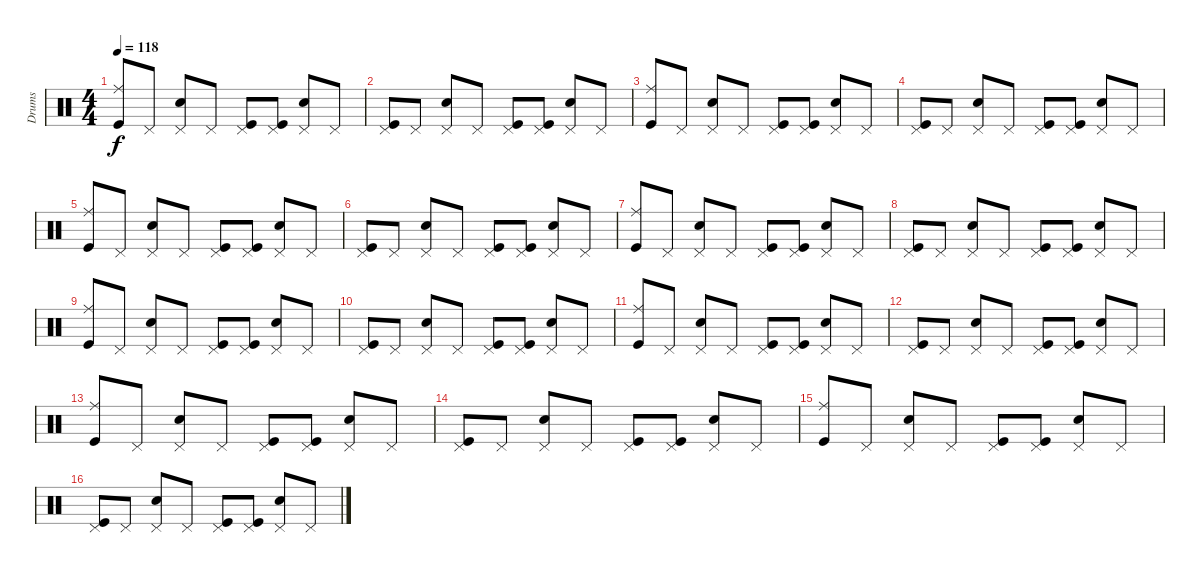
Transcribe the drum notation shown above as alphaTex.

\track ("Drums" "Drums") {instrument percussion}
\staff {score}
\articulation defaults
\ts (4 4)
\tempo 118
\clef neutral
\ks c
("Kick (hit)" "Ride (middle)").8{dy f} "Pedal Hi-Hat (hit)".8 ("Snare (hit) 2" "Pedal Hi-Hat (hit)").8 "Pedal Hi-Hat (hit)".8 ("Kick (hit)" "Pedal Hi-Hat (hit)").8 ("Kick (hit)" "Pedal Hi-Hat (hit)").8 ("Snare (hit) 2" "Pedal Hi-Hat (hit)").8 "Pedal Hi-Hat (hit)".8 |
("Kick (hit)" "Pedal Hi-Hat (hit)").8 "Pedal Hi-Hat (hit)".8 ("Snare (hit) 2" "Pedal Hi-Hat (hit)").8 "Pedal Hi-Hat (hit)".8 ("Kick (hit)" "Pedal Hi-Hat (hit)").8 ("Kick (hit)" "Pedal Hi-Hat (hit)").8 ("Snare (hit) 2" "Pedal Hi-Hat (hit)").8 "Pedal Hi-Hat (hit)".8 |
("Kick (hit)" "Ride (middle)").8 "Pedal Hi-Hat (hit)".8 ("Snare (hit) 2" "Pedal Hi-Hat (hit)").8 "Pedal Hi-Hat (hit)".8 ("Kick (hit)" "Pedal Hi-Hat (hit)").8 ("Kick (hit)" "Pedal Hi-Hat (hit)").8 ("Snare (hit) 2" "Pedal Hi-Hat (hit)").8 "Pedal Hi-Hat (hit)".8 |
("Kick (hit)" "Pedal Hi-Hat (hit)").8 "Pedal Hi-Hat (hit)".8 ("Snare (hit) 2" "Pedal Hi-Hat (hit)").8 "Pedal Hi-Hat (hit)".8 ("Kick (hit)" "Pedal Hi-Hat (hit)").8 ("Kick (hit)" "Pedal Hi-Hat (hit)").8 ("Snare (hit) 2" "Pedal Hi-Hat (hit)").8 "Pedal Hi-Hat (hit)".8 |
("Kick (hit)" "Ride (middle)").8 "Pedal Hi-Hat (hit)".8 ("Snare (hit) 2" "Pedal Hi-Hat (hit)").8 "Pedal Hi-Hat (hit)".8 ("Kick (hit)" "Pedal Hi-Hat (hit)").8 ("Kick (hit)" "Pedal Hi-Hat (hit)").8 ("Snare (hit) 2" "Pedal Hi-Hat (hit)").8 "Pedal Hi-Hat (hit)".8 |
("Kick (hit)" "Pedal Hi-Hat (hit)").8 "Pedal Hi-Hat (hit)".8 ("Snare (hit) 2" "Pedal Hi-Hat (hit)").8 "Pedal Hi-Hat (hit)".8 ("Kick (hit)" "Pedal Hi-Hat (hit)").8 ("Kick (hit)" "Pedal Hi-Hat (hit)").8 ("Snare (hit) 2" "Pedal Hi-Hat (hit)").8 "Pedal Hi-Hat (hit)".8 |
\section ("" "")
("Kick (hit)" "Ride (middle)").8 "Pedal Hi-Hat (hit)".8 ("Snare (hit) 2" "Pedal Hi-Hat (hit)").8 "Pedal Hi-Hat (hit)".8 ("Kick (hit)" "Pedal Hi-Hat (hit)").8 ("Kick (hit)" "Pedal Hi-Hat (hit)").8 ("Snare (hit) 2" "Pedal Hi-Hat (hit)").8 "Pedal Hi-Hat (hit)".8 |
("Kick (hit)" "Pedal Hi-Hat (hit)").8 "Pedal Hi-Hat (hit)".8 ("Snare (hit) 2" "Pedal Hi-Hat (hit)").8 "Pedal Hi-Hat (hit)".8 ("Kick (hit)" "Pedal Hi-Hat (hit)").8 ("Kick (hit)" "Pedal Hi-Hat (hit)").8 ("Snare (hit) 2" "Pedal Hi-Hat (hit)").8 "Pedal Hi-Hat (hit)".8 |
("Kick (hit)" "Ride (middle)").8 "Pedal Hi-Hat (hit)".8 ("Snare (hit) 2" "Pedal Hi-Hat (hit)").8 "Pedal Hi-Hat (hit)".8 ("Kick (hit)" "Pedal Hi-Hat (hit)").8 ("Kick (hit)" "Pedal Hi-Hat (hit)").8 ("Snare (hit) 2" "Pedal Hi-Hat (hit)").8 "Pedal Hi-Hat (hit)".8 |
("Kick (hit)" "Pedal Hi-Hat (hit)").8 "Pedal Hi-Hat (hit)".8 ("Snare (hit) 2" "Pedal Hi-Hat (hit)").8 "Pedal Hi-Hat (hit)".8 ("Kick (hit)" "Pedal Hi-Hat (hit)").8 ("Kick (hit)" "Pedal Hi-Hat (hit)").8 ("Snare (hit) 2" "Pedal Hi-Hat (hit)").8 "Pedal Hi-Hat (hit)".8 |
("Kick (hit)" "Ride (middle)").8 "Pedal Hi-Hat (hit)".8 ("Snare (hit) 2" "Pedal Hi-Hat (hit)").8 "Pedal Hi-Hat (hit)".8 ("Kick (hit)" "Pedal Hi-Hat (hit)").8 ("Kick (hit)" "Pedal Hi-Hat (hit)").8 ("Snare (hit) 2" "Pedal Hi-Hat (hit)").8 "Pedal Hi-Hat (hit)".8 |
("Kick (hit)" "Pedal Hi-Hat (hit)").8 "Pedal Hi-Hat (hit)".8 ("Snare (hit) 2" "Pedal Hi-Hat (hit)").8 "Pedal Hi-Hat (hit)".8 ("Kick (hit)" "Pedal Hi-Hat (hit)").8 ("Kick (hit)" "Pedal Hi-Hat (hit)").8 ("Snare (hit) 2" "Pedal Hi-Hat (hit)").8 "Pedal Hi-Hat (hit)".8 |
("Kick (hit)" "Ride (middle)").8 "Pedal Hi-Hat (hit)".8 ("Snare (hit) 2" "Pedal Hi-Hat (hit)").8 "Pedal Hi-Hat (hit)".8 ("Kick (hit)" "Pedal Hi-Hat (hit)").8 ("Kick (hit)" "Pedal Hi-Hat (hit)").8 ("Snare (hit) 2" "Pedal Hi-Hat (hit)").8 "Pedal Hi-Hat (hit)".8 |
("Kick (hit)" "Pedal Hi-Hat (hit)").8 "Pedal Hi-Hat (hit)".8 ("Snare (hit) 2" "Pedal Hi-Hat (hit)").8 "Pedal Hi-Hat (hit)".8 ("Kick (hit)" "Pedal Hi-Hat (hit)").8 ("Kick (hit)" "Pedal Hi-Hat (hit)").8 ("Snare (hit) 2" "Pedal Hi-Hat (hit)").8 "Pedal Hi-Hat (hit)".8 |
("Kick (hit)" "Ride (middle)").8 "Pedal Hi-Hat (hit)".8 ("Snare (hit) 2" "Pedal Hi-Hat (hit)").8 "Pedal Hi-Hat (hit)".8 ("Kick (hit)" "Pedal Hi-Hat (hit)").8 ("Kick (hit)" "Pedal Hi-Hat (hit)").8 ("Snare (hit) 2" "Pedal Hi-Hat (hit)").8 "Pedal Hi-Hat (hit)".8 |
("Kick (hit)" "Pedal Hi-Hat (hit)").8 "Pedal Hi-Hat (hit)".8 ("Snare (hit) 2" "Pedal Hi-Hat (hit)").8 "Pedal Hi-Hat (hit)".8 ("Kick (hit)" "Pedal Hi-Hat (hit)").8 ("Kick (hit)" "Pedal Hi-Hat (hit)").8 ("Snare (hit) 2" "Pedal Hi-Hat (hit)").8 "Pedal Hi-Hat (hit)".8
